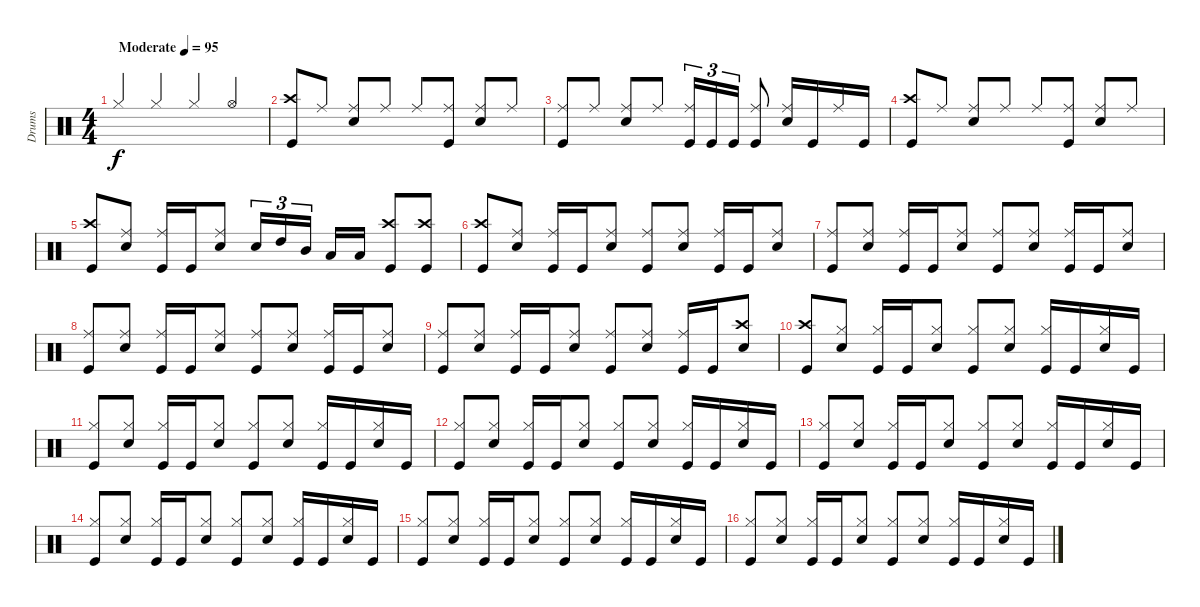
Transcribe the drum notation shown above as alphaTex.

\track ("Drums" "Drums") {instrument percussion}
\staff {score}
\articulation defaults
\ts (4 4)
\tempo (95 "Moderate")
\clef neutral
\ks c "Hi-Hat (closed)".4{dy f beam Up} "Hi-Hat (closed)".4{beam Up} "Hi-Hat (closed)".4{beam Up} "Hi-Hat (open)".4{beam Up}
|
("Kick (hit)" "Crash high (hit)").8{beam Up} "Ride (middle)".8{beam Up} ("Snare (hit) 2" "Ride (middle)").8{beam Up} "Ride (middle)".8{beam Up} "Ride (middle)".8{beam Up} ("Kick (hit)" "Ride (middle)").8{beam Up} ("Snare (hit) 2" "Ride (middle)").8{beam Up} "Ride (middle)".8{beam Up} |
("Kick (hit)" "Ride (middle)").8{beam Up} "Ride (middle)".8{beam Up} ("Snare (hit) 2" "Ride (middle)").8{beam Up} "Ride (middle)".8{beam Up} ("Kick (hit)" "Ride (middle)").16{tu (3 2) beam Up} "Kick (hit)".16{tu (3 2) beam Up} "Kick (hit)".16{tu (3 2) beam Up} ("Kick (hit)" "Ride (middle)").8{beam Up} ("Snare (hit) 2" "Ride (middle)").16{beam Up} "Kick (hit)".16{beam Up} "Ride (middle)".16{beam Up} "Kick (hit)".16{beam Up} |
("Kick (hit)" "Crash high (hit)").8{beam Up} "Ride (middle)".8{beam Up} ("Snare (hit) 2" "Ride (middle)").8{beam Up} "Ride (middle)".8{beam Up} "Ride (middle)".8{beam Up} ("Kick (hit)" "Ride (middle)").8{beam Up} ("Snare (hit) 2" "Ride (middle)").8{beam Up} "Ride (middle)".8{beam Up} |
("Kick (hit)" "Crash high (hit)").8{beam Up} ("Snare (hit) 2" "Ride (middle)").8{beam Up} ("Ride (middle)" "Kick (hit)").16{beam Up} "Kick (hit)".16{beam Up} ("Snare (hit) 2" "Ride (middle)").8{beam Up} "Snare (hit) 2".16{tu (3 2) beam Up} "High Tom (hit)".16{tu (3 2) beam Up} "Mid Tom (hit)".16{tu (3 2) beam Up beam splitsecondary} "Low Tom (hit)".16{beam Up} "Low Tom (hit)".16{beam Up} ("Kick (hit)" "Crash high (hit)").8{beam Up} ("Kick (hit)" "Crash high (hit)").8{beam Up} |
("Kick (hit)" "Crash high (hit)").8{beam Up} ("Snare (hit) 2" "Ride (middle)").8{beam Up} ("Kick (hit)" "Ride (middle)").16{beam Up} "Kick (hit)".16{beam Up} ("Snare (hit) 2" "Ride (middle)").8{beam Up} ("Kick (hit)" "Ride (middle)").8{beam Up} ("Snare (hit) 2" "Ride (middle)").8{beam Up} ("Kick (hit)" "Ride (middle)").16{beam Up} "Kick (hit)".16{beam Up} ("Snare (hit) 2" "Ride (middle)").8{beam Up} |
("Kick (hit)" "Ride (middle)").8{beam Up} ("Snare (hit) 2" "Ride (middle)").8{beam Up} ("Kick (hit)" "Ride (middle)").16{beam Up} "Kick (hit)".16{beam Up} ("Snare (hit) 2" "Ride (middle)").8{beam Up} ("Kick (hit)" "Ride (middle)").8{beam Up} ("Snare (hit) 2" "Ride (middle)").8{beam Up} ("Kick (hit)" "Ride (middle)").16{beam Up} "Kick (hit)".16{beam Up} ("Snare (hit) 2" "Ride (middle)").8{beam Up} |
("Kick (hit)" "Ride (middle)").8{beam Up} ("Snare (hit) 2" "Ride (middle)").8{beam Up} ("Kick (hit)" "Ride (middle)").16{beam Up} "Kick (hit)".16{beam Up} ("Snare (hit) 2" "Ride (middle)").8{beam Up} ("Kick (hit)" "Ride (middle)").8{beam Up} ("Snare (hit) 2" "Ride (middle)").8{beam Up} ("Kick (hit)" "Ride (middle)").16{beam Up} "Kick (hit)".16{beam Up} ("Snare (hit) 2" "Ride (middle)").8{beam Up} |
("Kick (hit)" "Ride (middle)").8{beam Up} ("Snare (hit) 2" "Ride (middle)").8{beam Up} ("Kick (hit)" "Ride (middle)").16{beam Up} "Kick (hit)".16{beam Up} ("Snare (hit) 2" "Ride (middle)").8{beam Up} ("Kick (hit)" "Ride (middle)").8{beam Up} ("Snare (hit) 2" "Ride (middle)").8{beam Up} ("Kick (hit)" "Ride (middle)").16{beam Up} "Kick (hit)".16{beam Up} ("Snare (hit) 2" "Crash high (hit)").8{beam Up} |
("Kick (hit)" "Crash high (hit)").8{beam Up} ("Snare (hit) 2" "Hi-Hat (closed)").8{beam Up} ("Kick (hit)" "Hi-Hat (closed)").16{beam Up} "Kick (hit)".16{beam Up} ("Snare (hit) 2" "Hi-Hat (closed)").8{beam Up} ("Kick (hit)" "Hi-Hat (closed)").8{beam Up} ("Snare (hit) 2" "Hi-Hat (closed)").8{beam Up} ("Kick (hit)" "Hi-Hat (closed)").16{beam Up} "Kick (hit)".16{beam Up} ("Snare (hit) 2" "Hi-Hat (closed)").16{beam Up} "Kick (hit)".16{beam Up} |
("Kick (hit)" "Hi-Hat (closed)").8{beam Up} ("Snare (hit) 2" "Hi-Hat (closed)").8{beam Up} ("Kick (hit)" "Hi-Hat (closed)").16{beam Up} "Kick (hit)".16{beam Up} ("Snare (hit) 2" "Hi-Hat (closed)").8{beam Up} ("Kick (hit)" "Hi-Hat (closed)").8{beam Up} ("Snare (hit) 2" "Hi-Hat (closed)").8{beam Up} ("Kick (hit)" "Hi-Hat (closed)").16{beam Up} "Kick (hit)".16{beam Up} ("Snare (hit) 2" "Hi-Hat (closed)").16{beam Up} "Kick (hit)".16{beam Up} |
("Kick (hit)" "Hi-Hat (closed)").8{beam Up} ("Snare (hit) 2" "Hi-Hat (closed)").8{beam Up} ("Kick (hit)" "Hi-Hat (closed)").16{beam Up} "Kick (hit)".16{beam Up} ("Snare (hit) 2" "Hi-Hat (closed)").8{beam Up} ("Kick (hit)" "Hi-Hat (closed)").8{beam Up} ("Snare (hit) 2" "Hi-Hat (closed)").8{beam Up} ("Kick (hit)" "Hi-Hat (closed)").16{beam Up} "Kick (hit)".16{beam Up} ("Snare (hit) 2" "Hi-Hat (closed)").16{beam Up} "Kick (hit)".16{beam Up} |
("Kick (hit)" "Hi-Hat (closed)").8{beam Up} ("Snare (hit) 2" "Hi-Hat (closed)").8{beam Up} ("Kick (hit)" "Hi-Hat (closed)").16{beam Up} "Kick (hit)".16{beam Up} ("Snare (hit) 2" "Hi-Hat (closed)").8{beam Up} ("Kick (hit)" "Hi-Hat (closed)").8{beam Up} ("Snare (hit) 2" "Hi-Hat (closed)").8{beam Up} ("Kick (hit)" "Hi-Hat (closed)").16{beam Up} "Kick (hit)".16{beam Up} ("Snare (hit) 2" "Hi-Hat (closed)").16{beam Up} "Kick (hit)".16{beam Up} |
("Kick (hit)" "Hi-Hat (closed)").8{beam Up} ("Snare (hit) 2" "Hi-Hat (closed)").8{beam Up} ("Kick (hit)" "Hi-Hat (closed)").16{beam Up} "Kick (hit)".16{beam Up} ("Snare (hit) 2" "Hi-Hat (closed)").8{beam Up} ("Kick (hit)" "Hi-Hat (closed)").8{beam Up} ("Snare (hit) 2" "Hi-Hat (closed)").8{beam Up} ("Kick (hit)" "Hi-Hat (closed)").16{beam Up} "Kick (hit)".16{beam Up} ("Snare (hit) 2" "Hi-Hat (closed)").16{beam Up} "Kick (hit)".16{beam Up} |
("Kick (hit)" "Hi-Hat (closed)").8{beam Up} ("Snare (hit) 2" "Hi-Hat (closed)").8{beam Up} ("Kick (hit)" "Hi-Hat (closed)").16{beam Up} "Kick (hit)".16{beam Up} ("Snare (hit) 2" "Hi-Hat (closed)").8{beam Up} ("Kick (hit)" "Hi-Hat (closed)").8{beam Up} ("Snare (hit) 2" "Hi-Hat (closed)").8{beam Up} ("Kick (hit)" "Hi-Hat (closed)").16{beam Up} "Kick (hit)".16{beam Up} ("Snare (hit) 2" "Hi-Hat (closed)").16{beam Up} "Kick (hit)".16{beam Up} |
("Kick (hit)" "Hi-Hat (closed)").8{beam Up} ("Snare (hit) 2" "Hi-Hat (closed)").8{beam Up} ("Kick (hit)" "Hi-Hat (closed)").16{beam Up} "Kick (hit)".16{beam Up} ("Snare (hit) 2" "Hi-Hat (closed)").8{beam Up} ("Kick (hit)" "Hi-Hat (closed)").8{beam Up} ("Snare (hit) 2" "Hi-Hat (closed)").8{beam Up} ("Kick (hit)" "Hi-Hat (closed)").16{beam Up} "Kick (hit)".16{beam Up} ("Snare (hit) 2" "Hi-Hat (closed)").16{beam Up} "Kick (hit)".16{beam Up}
